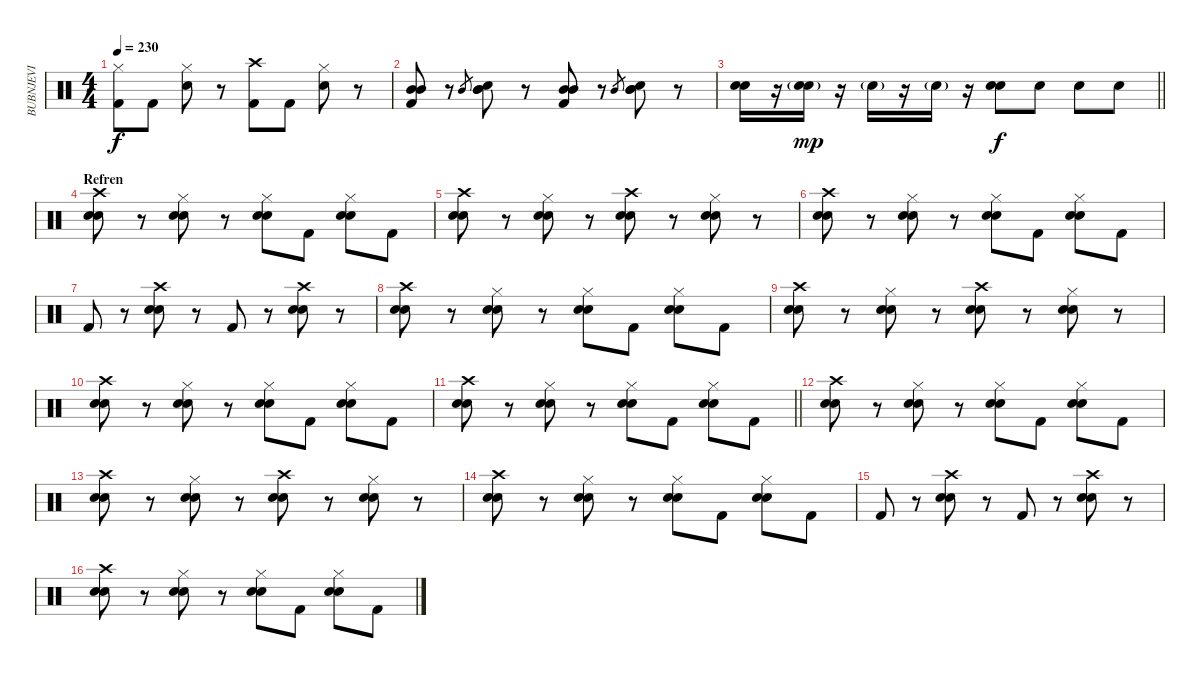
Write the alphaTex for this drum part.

\track ("BUBNJEVI" "BUBNJEVI") {instrument percussion}
\staff {score}
\articulation defaults
\ts (4 4)
\tempo 230
\clef neutral
\ks c
("Hi-Hat (closed)" "Kick (hit) 2").8{dy f} "Kick (hit) 2".8 ("Hi-Hat (closed)" "Snare (hit) 2").8 r.8 ("Crash high (hit)" "Kick (hit) 2").8 "Kick (hit) 2".8 ("Hi-Hat (closed)" "Snare (hit) 2").8 r.8 |
("Mid Tom (hit)" "Mid Tom (hit)" "Kick (hit) 2").8 r.8 "Mid Tom (hit)".8{gr} ("Mid Tom (hit)" "Mid Tom (hit)" "Snare (hit) 2").8 r.8 ("Mid Tom (hit)" "Mid Tom (hit)" "Kick (hit) 2").8 r.8 "Mid Tom (hit)".8{gr} ("Mid Tom (hit)" "Mid Tom (hit)" "Snare (hit) 2").8 r.8 |
\barLineRight lightlight
("Snare (hit) 2" "Snare (hit) 2").16 r.16 ("Snare (hit) 2"{g} "Snare (hit) 2"{g}).16{dy mp} r.16 "Snare (hit) 2"{g}.16 r.16 "Snare (hit) 2"{g}.16 r.16 ("Snare (hit) 2" "Snare (hit) 2").8{dy f} "Snare (hit) 2".8 "Snare (hit) 2".8 "Snare (hit) 2".8 |
\section ("" "Refren")
("Crash high (hit)" "Snare (hit) 2" "Snare (hit) 2").8 r.8 ("Hi-Hat (closed)" "Snare (hit) 2" "Snare (hit) 2").8 r.8 ("Hi-Hat (closed)" "Snare (hit) 2" "Snare (hit) 2").8 "Kick (hit) 2".8 ("Hi-Hat (closed)" "Snare (hit) 2" "Snare (hit) 2").8 "Kick (hit) 2".8 |
("Crash high (hit)" "Snare (hit) 2" "Snare (hit) 2").8 r.8 ("Hi-Hat (closed)" "Snare (hit) 2" "Snare (hit) 2").8 r.8 ("Crash high (hit)" "Snare (hit) 2" "Snare (hit) 2").8 r.8 ("Hi-Hat (closed)" "Snare (hit) 2" "Snare (hit) 2").8 r.8 |
("Crash high (hit)" "Snare (hit) 2" "Snare (hit) 2").8 r.8 ("Hi-Hat (closed)" "Snare (hit) 2" "Snare (hit) 2").8 r.8 ("Hi-Hat (closed)" "Snare (hit) 2" "Snare (hit) 2").8 "Kick (hit) 2".8 ("Hi-Hat (closed)" "Snare (hit) 2" "Snare (hit) 2").8 "Kick (hit) 2".8 |
"Kick (hit) 2".8 r.8 ("Crash high (hit)" "Snare (hit) 2" "Snare (hit) 2").8 r.8 "Kick (hit) 2".8 r.8 ("Crash high (hit)" "Snare (hit) 2" "Snare (hit) 2").8 r.8 |
("Crash high (hit)" "Snare (hit) 2" "Snare (hit) 2").8 r.8 ("Hi-Hat (closed)" "Snare (hit) 2" "Snare (hit) 2").8 r.8 ("Hi-Hat (closed)" "Snare (hit) 2" "Snare (hit) 2").8 "Kick (hit) 2".8 ("Hi-Hat (closed)" "Snare (hit) 2" "Snare (hit) 2").8 "Kick (hit) 2".8 |
("Crash high (hit)" "Snare (hit) 2" "Snare (hit) 2").8 r.8 ("Hi-Hat (closed)" "Snare (hit) 2" "Snare (hit) 2").8 r.8 ("Crash high (hit)" "Snare (hit) 2" "Snare (hit) 2").8 r.8 ("Hi-Hat (closed)" "Snare (hit) 2" "Snare (hit) 2").8 r.8 |
("Crash high (hit)" "Snare (hit) 2" "Snare (hit) 2").8 r.8 ("Hi-Hat (closed)" "Snare (hit) 2" "Snare (hit) 2").8 r.8 ("Hi-Hat (closed)" "Snare (hit) 2" "Snare (hit) 2").8 "Kick (hit) 2".8 ("Hi-Hat (closed)" "Snare (hit) 2" "Snare (hit) 2").8 "Kick (hit) 2".8 |
\barLineRight lightlight
("Crash high (hit)" "Snare (hit) 2" "Snare (hit) 2").8 r.8 ("Hi-Hat (closed)" "Snare (hit) 2" "Snare (hit) 2").8 r.8 ("Hi-Hat (closed)" "Snare (hit) 2" "Snare (hit) 2").8 "Kick (hit) 2".8 ("Hi-Hat (closed)" "Snare (hit) 2" "Snare (hit) 2").8 "Kick (hit) 2".8 |
("Crash high (hit)" "Snare (hit) 2" "Snare (hit) 2").8 r.8 ("Hi-Hat (closed)" "Snare (hit) 2" "Snare (hit) 2").8 r.8 ("Hi-Hat (closed)" "Snare (hit) 2" "Snare (hit) 2").8 "Kick (hit) 2".8 ("Hi-Hat (closed)" "Snare (hit) 2" "Snare (hit) 2").8 "Kick (hit) 2".8 |
("Crash high (hit)" "Snare (hit) 2" "Snare (hit) 2").8 r.8 ("Hi-Hat (closed)" "Snare (hit) 2" "Snare (hit) 2").8 r.8 ("Crash high (hit)" "Snare (hit) 2" "Snare (hit) 2").8 r.8 ("Hi-Hat (closed)" "Snare (hit) 2" "Snare (hit) 2").8 r.8 |
("Crash high (hit)" "Snare (hit) 2" "Snare (hit) 2").8 r.8 ("Hi-Hat (closed)" "Snare (hit) 2" "Snare (hit) 2").8 r.8 ("Hi-Hat (closed)" "Snare (hit) 2" "Snare (hit) 2").8 "Kick (hit) 2".8 ("Hi-Hat (closed)" "Snare (hit) 2" "Snare (hit) 2").8 "Kick (hit) 2".8 |
"Kick (hit) 2".8 r.8 ("Crash high (hit)" "Snare (hit) 2" "Snare (hit) 2").8 r.8 "Kick (hit) 2".8 r.8 ("Crash high (hit)" "Snare (hit) 2" "Snare (hit) 2").8 r.8 |
("Crash high (hit)" "Snare (hit) 2" "Snare (hit) 2").8 r.8 ("Hi-Hat (closed)" "Snare (hit) 2" "Snare (hit) 2").8 r.8 ("Hi-Hat (closed)" "Snare (hit) 2" "Snare (hit) 2").8 "Kick (hit) 2".8 ("Hi-Hat (closed)" "Snare (hit) 2" "Snare (hit) 2").8 "Kick (hit) 2".8
